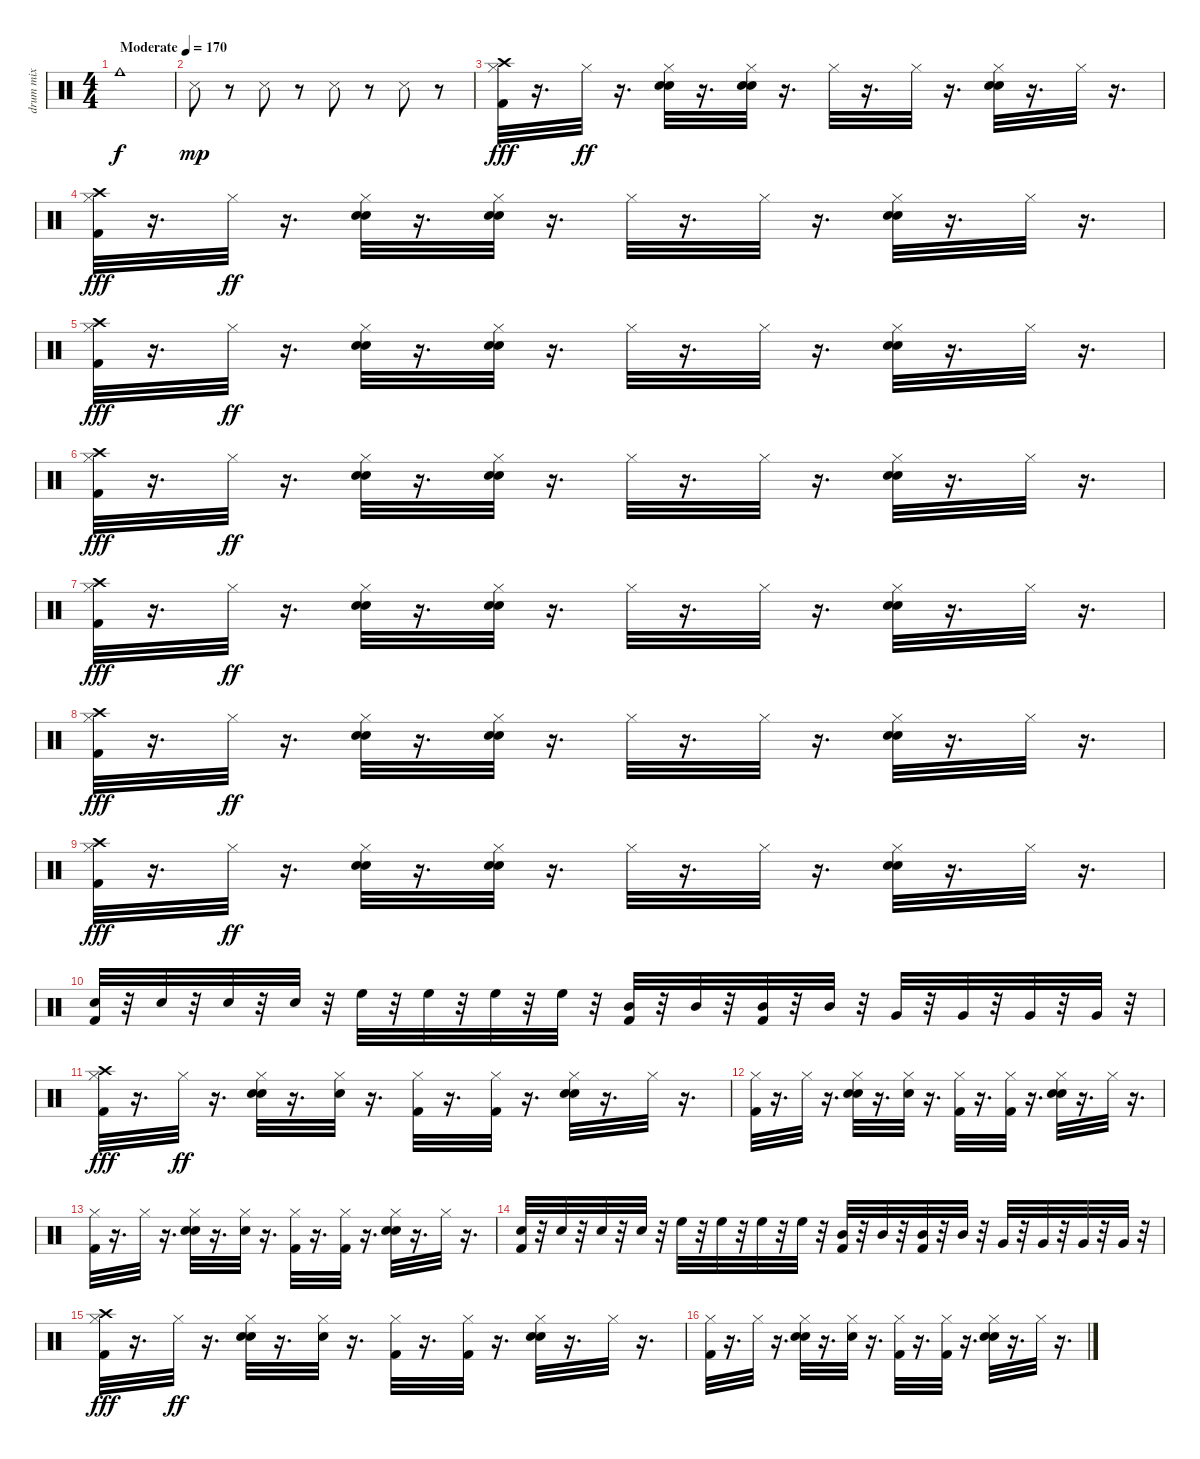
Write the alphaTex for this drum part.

\track ("drum mix" "drum mix") {instrument percussion}
\staff {score}
\articulation defaults
\ts (4 4)
\tempo (170 "Moderate")
\clef neutral
\ks c "Cowbell medium (hit)".1{dy f}
|
"Snare (side stick) 3".8{dy mp} r.8 "Snare (side stick) 3".8 r.8 "Snare (side stick) 3".8 r.8 "Snare (side stick) 3".8 r.8 |
("Kick (hit) 2" "Hi-Hat (closed)" "Crash high (hit)").32{dy fff} r.16{d} "Hi-Hat (closed)".32{dy ff} r.16{d} ("Snare (hit) 2" "Hand Clap (hit)" "Hi-Hat (closed)").32 r.16{d} ("Snare (hit) 2" "Hand Clap (hit)" "Hi-Hat (closed)").32 r.16{d} "Hi-Hat (closed)".32 r.16{d} "Hi-Hat (closed)".32 r.16{d} ("Snare (hit) 2" "Hand Clap (hit)" "Hi-Hat (closed)").32 r.16{d} "Hi-Hat (closed)".32 r.16{d} |
("Kick (hit) 2" "Hi-Hat (closed)" "Crash high (hit)").32{dy fff} r.16{d} "Hi-Hat (closed)".32{dy ff} r.16{d} ("Snare (hit) 2" "Hand Clap (hit)" "Hi-Hat (closed)").32 r.16{d} ("Snare (hit) 2" "Hand Clap (hit)" "Hi-Hat (closed)").32 r.16{d} "Hi-Hat (closed)".32 r.16{d} "Hi-Hat (closed)".32 r.16{d} ("Snare (hit) 2" "Hand Clap (hit)" "Hi-Hat (closed)").32 r.16{d} "Hi-Hat (closed)".32 r.16{d} |
("Kick (hit) 2" "Hi-Hat (closed)" "Crash high (hit)").32{dy fff} r.16{d} "Hi-Hat (closed)".32{dy ff} r.16{d} ("Snare (hit) 2" "Hand Clap (hit)" "Hi-Hat (closed)").32 r.16{d} ("Snare (hit) 2" "Hand Clap (hit)" "Hi-Hat (closed)").32 r.16{d} "Hi-Hat (closed)".32 r.16{d} "Hi-Hat (closed)".32 r.16{d} ("Snare (hit) 2" "Hand Clap (hit)" "Hi-Hat (closed)").32 r.16{d} "Hi-Hat (closed)".32 r.16{d} |
("Kick (hit) 2" "Hi-Hat (closed)" "Crash high (hit)").32{dy fff} r.16{d} "Hi-Hat (closed)".32{dy ff} r.16{d} ("Snare (hit) 2" "Hand Clap (hit)" "Hi-Hat (closed)").32 r.16{d} ("Snare (hit) 2" "Hand Clap (hit)" "Hi-Hat (closed)").32 r.16{d} "Hi-Hat (closed)".32 r.16{d} "Hi-Hat (closed)".32 r.16{d} ("Snare (hit) 2" "Hand Clap (hit)" "Hi-Hat (closed)").32 r.16{d} "Hi-Hat (closed)".32 r.16{d} |
("Kick (hit) 2" "Hi-Hat (closed)" "Crash high (hit)").32{dy fff} r.16{d} "Hi-Hat (closed)".32{dy ff} r.16{d} ("Snare (hit) 2" "Hand Clap (hit)" "Hi-Hat (closed)").32 r.16{d} ("Snare (hit) 2" "Hand Clap (hit)" "Hi-Hat (closed)").32 r.16{d} "Hi-Hat (closed)".32 r.16{d} "Hi-Hat (closed)".32 r.16{d} ("Snare (hit) 2" "Hand Clap (hit)" "Hi-Hat (closed)").32 r.16{d} "Hi-Hat (closed)".32 r.16{d} |
("Kick (hit) 2" "Hi-Hat (closed)" "Crash high (hit)").32{dy fff} r.16{d} "Hi-Hat (closed)".32{dy ff} r.16{d} ("Snare (hit) 2" "Hand Clap (hit)" "Hi-Hat (closed)").32 r.16{d} ("Snare (hit) 2" "Hand Clap (hit)" "Hi-Hat (closed)").32 r.16{d} "Hi-Hat (closed)".32 r.16{d} "Hi-Hat (closed)".32 r.16{d} ("Snare (hit) 2" "Hand Clap (hit)" "Hi-Hat (closed)").32 r.16{d} "Hi-Hat (closed)".32 r.16{d} |
("Kick (hit) 2" "Hi-Hat (closed)" "Crash high (hit)").32{dy fff} r.16{d} "Hi-Hat (closed)".32{dy ff} r.16{d} ("Snare (hit) 2" "Hand Clap (hit)" "Hi-Hat (closed)").32 r.16{d} ("Snare (hit) 2" "Hand Clap (hit)" "Hi-Hat (closed)").32 r.16{d} "Hi-Hat (closed)".32 r.16{d} "Hi-Hat (closed)".32 r.16{d} ("Snare (hit) 2" "Hand Clap (hit)" "Hi-Hat (closed)").32 r.16{d} "Hi-Hat (closed)".32 r.16{d} |
("Kick (hit) 2" "Snare (hit) 2").32 r.32 "Snare (hit) 2".32 r.32 "Snare (hit) 2".32 r.32 "Snare (hit) 2".32 r.32 "High Floor Tom (hit)".32 r.32 "High Floor Tom (hit)".32 r.32 "High Floor Tom (hit)".32 r.32 "High Floor Tom (hit)".32 r.32 ("Kick (hit) 2" "Mid Tom (hit)").32 r.32 "Mid Tom (hit)".32 r.32 ("Kick (hit) 2" "Mid Tom (hit)").32 r.32 "Mid Tom (hit)".32 r.32 "Very Low Tom (hit)".32 r.32 "Very Low Tom (hit)".32 r.32 "Very Low Tom (hit)".32 r.32 "Very Low Tom (hit)".32 r.32 |
("Kick (hit) 2" "Hi-Hat (closed)" "Crash high (hit)").32{dy fff} r.16{d} "Hi-Hat (closed)".32{dy ff} r.16{d} ("Snare (hit) 2" "Hand Clap (hit)" "Hi-Hat (closed)").32 r.16{d} ("Snare (hit) 2" "Hi-Hat (closed)").32 r.16{d} ("Kick (hit) 2" "Hi-Hat (closed)").32 r.16{d} ("Kick (hit) 2" "Hi-Hat (closed)").32 r.16{d} ("Snare (hit) 2" "Hand Clap (hit)" "Hi-Hat (closed)").32 r.16{d} "Hi-Hat (closed)".32 r.16{d} |
("Kick (hit) 2" "Hi-Hat (closed)").32 r.16{d} "Hi-Hat (closed)".32 r.16{d} ("Snare (hit) 2" "Hand Clap (hit)" "Hi-Hat (closed)").32 r.16{d} ("Snare (hit) 2" "Hi-Hat (closed)").32 r.16{d} ("Kick (hit) 2" "Hi-Hat (closed)").32 r.16{d} ("Kick (hit) 2" "Hi-Hat (closed)").32 r.16{d} ("Snare (hit) 2" "Hand Clap (hit)" "Hi-Hat (closed)").32 r.16{d} "Hi-Hat (closed)".32 r.16{d} |
("Kick (hit) 2" "Hi-Hat (closed)").32 r.16{d} "Hi-Hat (closed)".32 r.16{d} ("Snare (hit) 2" "Hand Clap (hit)" "Hi-Hat (closed)").32 r.16{d} ("Snare (hit) 2" "Hi-Hat (closed)").32 r.16{d} ("Kick (hit) 2" "Hi-Hat (closed)").32 r.16{d} ("Kick (hit) 2" "Hi-Hat (closed)").32 r.16{d} ("Snare (hit) 2" "Hand Clap (hit)" "Hi-Hat (closed)").32 r.16{d} "Hi-Hat (closed)".32 r.16{d} |
("Kick (hit) 2" "Snare (hit) 2").32 r.32 "Snare (hit) 2".32 r.32 "Snare (hit) 2".32 r.32 "Snare (hit) 2".32 r.32 "High Floor Tom (hit)".32 r.32 "High Floor Tom (hit)".32 r.32 "High Floor Tom (hit)".32 r.32 "High Floor Tom (hit)".32 r.32 ("Kick (hit) 2" "Mid Tom (hit)").32 r.32 "Mid Tom (hit)".32 r.32 ("Kick (hit) 2" "Mid Tom (hit)").32 r.32 "Mid Tom (hit)".32 r.32 "Very Low Tom (hit)".32 r.32 "Very Low Tom (hit)".32 r.32 "Very Low Tom (hit)".32 r.32 "Very Low Tom (hit)".32 r.32 |
("Kick (hit) 2" "Hi-Hat (closed)" "Crash high (hit)").32{dy fff} r.16{d} "Hi-Hat (closed)".32{dy ff} r.16{d} ("Snare (hit) 2" "Hand Clap (hit)" "Hi-Hat (closed)").32 r.16{d} ("Snare (hit) 2" "Hi-Hat (closed)").32 r.16{d} ("Kick (hit) 2" "Hi-Hat (closed)").32 r.16{d} ("Kick (hit) 2" "Hi-Hat (closed)").32 r.16{d} ("Snare (hit) 2" "Hand Clap (hit)" "Hi-Hat (closed)").32 r.16{d} "Hi-Hat (closed)".32 r.16{d} |
("Kick (hit) 2" "Hi-Hat (closed)").32 r.16{d} "Hi-Hat (closed)".32 r.16{d} ("Snare (hit) 2" "Hand Clap (hit)" "Hi-Hat (closed)").32 r.16{d} ("Snare (hit) 2" "Hi-Hat (closed)").32 r.16{d} ("Kick (hit) 2" "Hi-Hat (closed)").32 r.16{d} ("Kick (hit) 2" "Hi-Hat (closed)").32 r.16{d} ("Snare (hit) 2" "Hand Clap (hit)" "Hi-Hat (closed)").32 r.16{d} "Hi-Hat (closed)".32 r.16{d}
